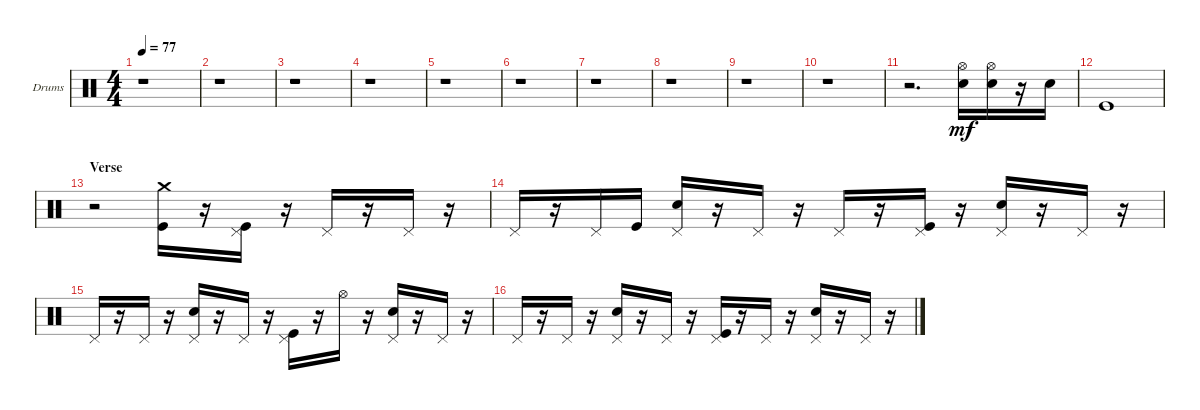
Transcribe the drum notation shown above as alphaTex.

\bracketExtendMode groupsimilarinstruments
\firstSystemTrackNameOrientation horizontal
\otherSystemsTrackNameOrientation horizontal
\track ("Drums" "Drums") {instrument percussion}
\staff {score}
\articulation defaults
\ts (4 4)
\tempo 77
\clef neutral
\ks c
r.1{dy mf} |
r.1 |
r.1 |
r.1 |
r.1 |
r.1 |
r.1 |
r.1 |
r.1 |
r.1 |
r.2{d} ("Snare (hit) 2" "Hi-Hat (open)").16 ("Snare (hit) 2" "Hi-Hat (open)").16 r.16 "Snare (hit) 2".16 |
"Kick (hit)".1 |
\section ("" "Verse")
r.2 ("Kick (hit)" "Crash medium (hit)").16 r.16 ("Kick (hit)" "Pedal Hi-Hat (hit)").16 r.16 "Pedal Hi-Hat (hit)".16 r.16 "Pedal Hi-Hat (hit)".16 r.16 |
"Pedal Hi-Hat (hit)".16 r.16 "Pedal Hi-Hat (hit)".16 "Kick (hit)".16 ("Snare (hit) 2" "Pedal Hi-Hat (hit)").16 r.16 "Pedal Hi-Hat (hit)".16 r.16 "Pedal Hi-Hat (hit)".16 r.16 ("Kick (hit)" "Pedal Hi-Hat (hit)").16 r.16 ("Snare (hit) 2" "Pedal Hi-Hat (hit)").16 r.16 "Pedal Hi-Hat (hit)".16 r.16 |
"Pedal Hi-Hat (hit)".16 r.16 "Pedal Hi-Hat (hit)".16 r.16 ("Pedal Hi-Hat (hit)" "Snare (hit) 2").16 r.16 "Pedal Hi-Hat (hit)".16 r.16 ("Kick (hit)" "Pedal Hi-Hat (hit)").16 r.16 "Hi-Hat (open)".16 r.16 ("Pedal Hi-Hat (hit)" "Snare (hit) 2").16 r.16 "Pedal Hi-Hat (hit)".16 r.16 |
"Pedal Hi-Hat (hit)".16 r.16 "Pedal Hi-Hat (hit)".16 r.16 ("Snare (hit) 2" "Pedal Hi-Hat (hit)").16 r.16 "Pedal Hi-Hat (hit)".16 r.16 ("Pedal Hi-Hat (hit)" "Kick (hit)").16 r.16 "Pedal Hi-Hat (hit)".16 r.16 ("Snare (hit) 2" "Pedal Hi-Hat (hit)").16 r.16 "Pedal Hi-Hat (hit)".16 r.16
